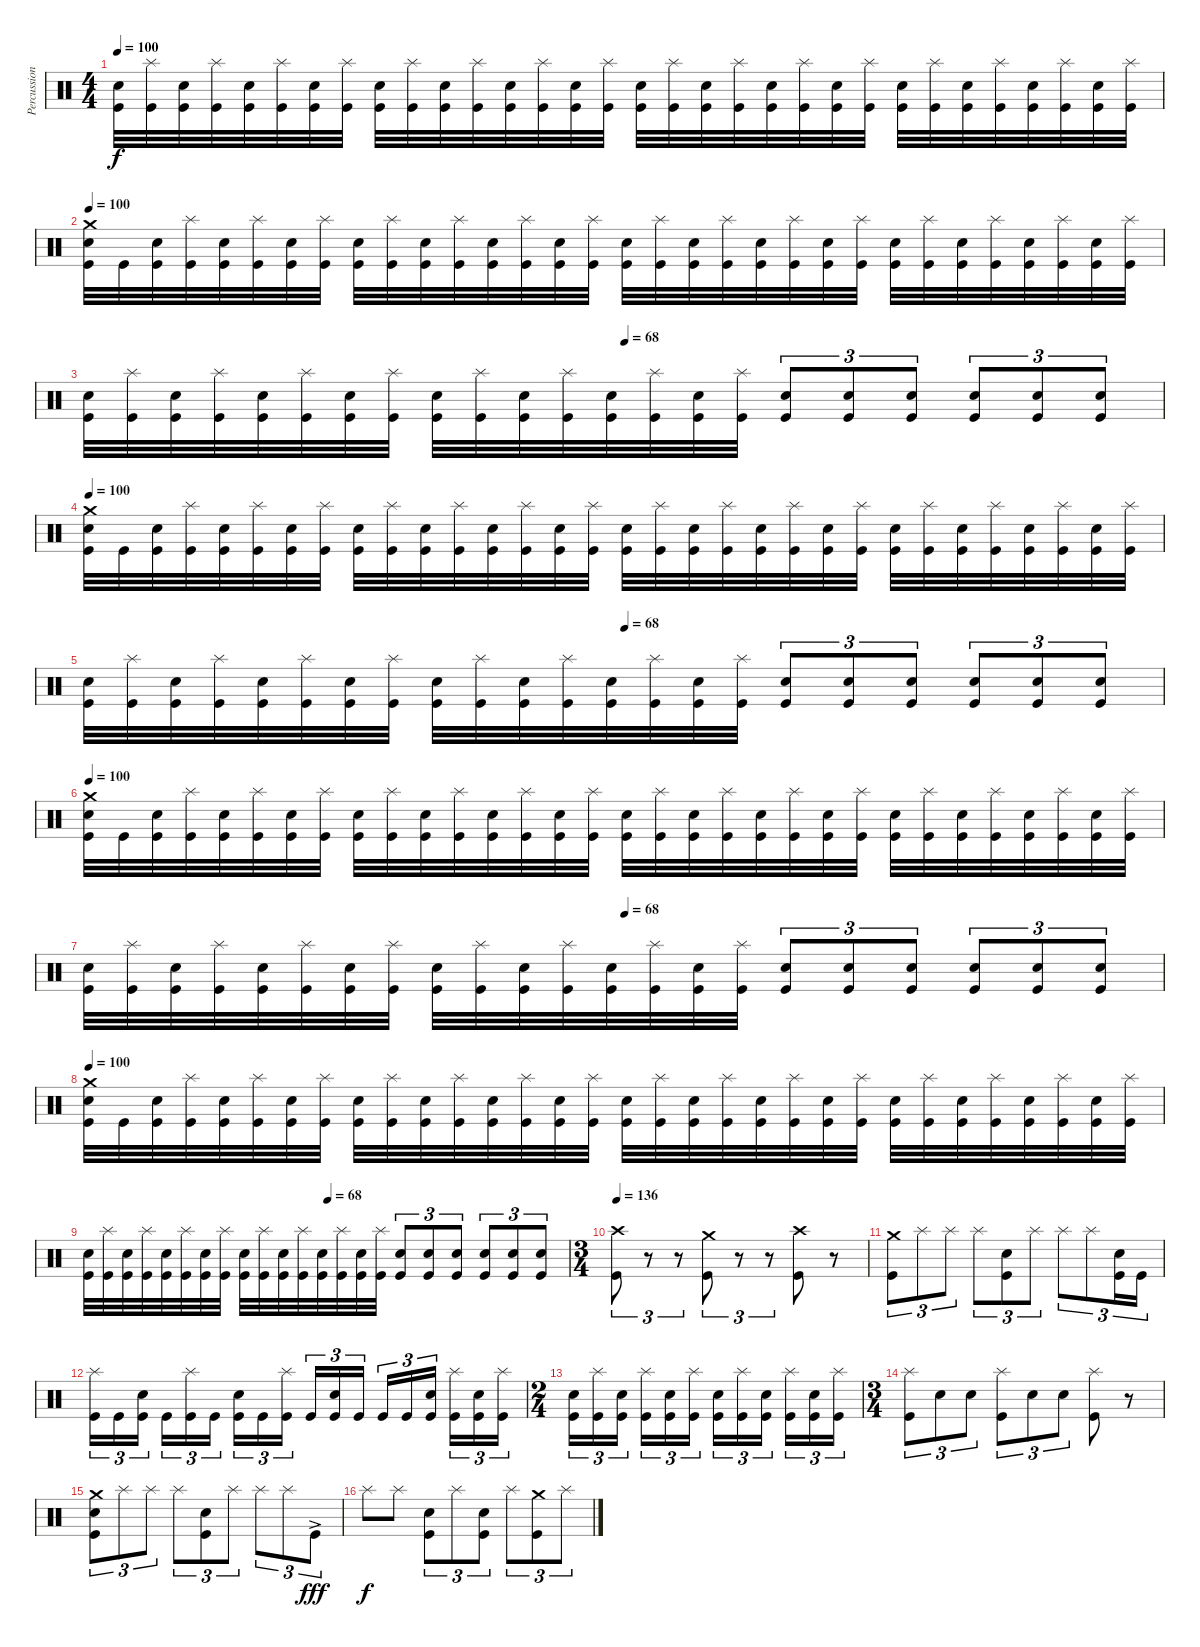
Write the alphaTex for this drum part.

\track ("Percussion" "Percussion") {instrument percussion}
\staff {score}
\articulation defaults
\ts (4 4)
\tempo 100
\clef neutral
\ks c
("Electric Snare (hit)" "Kick (hit)").32{dy f} ("Splash (hit)" "Kick (hit)").32 ("Electric Snare (hit)" "Kick (hit)").32 ("Splash (hit)" "Kick (hit)").32 ("Electric Snare (hit)" "Kick (hit)").32 ("Splash (hit)" "Kick (hit)").32 ("Electric Snare (hit)" "Kick (hit)").32 ("Splash (hit)" "Kick (hit)").32 ("Electric Snare (hit)" "Kick (hit)").32 ("Splash (hit)" "Kick (hit)").32 ("Electric Snare (hit)" "Kick (hit)").32 ("Splash (hit)" "Kick (hit)").32 ("Electric Snare (hit)" "Kick (hit)").32 ("Splash (hit)" "Kick (hit)").32 ("Electric Snare (hit)" "Kick (hit)").32 ("Splash (hit)" "Kick (hit)").32 ("Electric Snare (hit)" "Kick (hit)").32 ("Splash (hit)" "Kick (hit)").32 ("Electric Snare (hit)" "Kick (hit)").32 ("Splash (hit)" "Kick (hit)").32 ("Electric Snare (hit)" "Kick (hit)").32 ("Splash (hit)" "Kick (hit)").32 ("Electric Snare (hit)" "Kick (hit)").32 ("Splash (hit)" "Kick (hit)").32 ("Electric Snare (hit)" "Kick (hit)").32 ("Splash (hit)" "Kick (hit)").32 ("Electric Snare (hit)" "Kick (hit)").32 ("Splash (hit)" "Kick (hit)").32 ("Electric Snare (hit)" "Kick (hit)").32 ("Splash (hit)" "Kick (hit)").32 ("Electric Snare (hit)" "Kick (hit)").32 ("Splash (hit)" "Kick (hit)").32 |
\tempo 100
("Crash medium (hit)" "Electric Snare (hit)" "Kick (hit)").32 "Kick (hit)".32 ("Electric Snare (hit)" "Kick (hit)").32 ("Splash (hit)" "Kick (hit)").32 ("Electric Snare (hit)" "Kick (hit)").32 ("Splash (hit)" "Kick (hit)").32 ("Electric Snare (hit)" "Kick (hit)").32 ("Splash (hit)" "Kick (hit)").32 ("Electric Snare (hit)" "Kick (hit)").32 ("Splash (hit)" "Kick (hit)").32 ("Electric Snare (hit)" "Kick (hit)").32 ("Splash (hit)" "Kick (hit)").32 ("Electric Snare (hit)" "Kick (hit)").32 ("Splash (hit)" "Kick (hit)").32 ("Electric Snare (hit)" "Kick (hit)").32 ("Splash (hit)" "Kick (hit)").32 ("Electric Snare (hit)" "Kick (hit)").32 ("Splash (hit)" "Kick (hit)").32 ("Electric Snare (hit)" "Kick (hit)").32 ("Splash (hit)" "Kick (hit)").32 ("Electric Snare (hit)" "Kick (hit)").32 ("Splash (hit)" "Kick (hit)").32 ("Electric Snare (hit)" "Kick (hit)").32 ("Splash (hit)" "Kick (hit)").32 ("Electric Snare (hit)" "Kick (hit)").32 ("Splash (hit)" "Kick (hit)").32 ("Electric Snare (hit)" "Kick (hit)").32 ("Splash (hit)" "Kick (hit)").32 ("Electric Snare (hit)" "Kick (hit)").32 ("Splash (hit)" "Kick (hit)").32 ("Electric Snare (hit)" "Kick (hit)").32 ("Splash (hit)" "Kick (hit)").32 |
\tempo (68 0.5)
("Electric Snare (hit)" "Kick (hit)").32 ("Splash (hit)" "Kick (hit)").32 ("Electric Snare (hit)" "Kick (hit)").32 ("Splash (hit)" "Kick (hit)").32 ("Electric Snare (hit)" "Kick (hit)").32 ("Splash (hit)" "Kick (hit)").32 ("Electric Snare (hit)" "Kick (hit)").32 ("Splash (hit)" "Kick (hit)").32 ("Electric Snare (hit)" "Kick (hit)").32 ("Splash (hit)" "Kick (hit)").32 ("Electric Snare (hit)" "Kick (hit)").32 ("Splash (hit)" "Kick (hit)").32 ("Electric Snare (hit)" "Kick (hit)").32 ("Splash (hit)" "Kick (hit)").32 ("Electric Snare (hit)" "Kick (hit)").32 ("Splash (hit)" "Kick (hit)").32 ("Electric Snare (hit)" "Kick (hit)").8{tu (3 2)} ("Electric Snare (hit)" "Kick (hit)").8{tu (3 2)} ("Electric Snare (hit)" "Kick (hit)").8{tu (3 2)} ("Electric Snare (hit)" "Kick (hit)").8{tu (3 2)} ("Electric Snare (hit)" "Kick (hit)").8{tu (3 2)} ("Electric Snare (hit)" "Kick (hit)").8{tu (3 2)} |
\tempo 100
("Crash medium (hit)" "Electric Snare (hit)" "Kick (hit)").32 "Kick (hit)".32 ("Electric Snare (hit)" "Kick (hit)").32 ("Splash (hit)" "Kick (hit)").32 ("Electric Snare (hit)" "Kick (hit)").32 ("Splash (hit)" "Kick (hit)").32 ("Electric Snare (hit)" "Kick (hit)").32 ("Splash (hit)" "Kick (hit)").32 ("Electric Snare (hit)" "Kick (hit)").32 ("Splash (hit)" "Kick (hit)").32 ("Electric Snare (hit)" "Kick (hit)").32 ("Splash (hit)" "Kick (hit)").32 ("Electric Snare (hit)" "Kick (hit)").32 ("Splash (hit)" "Kick (hit)").32 ("Electric Snare (hit)" "Kick (hit)").32 ("Splash (hit)" "Kick (hit)").32 ("Electric Snare (hit)" "Kick (hit)").32 ("Splash (hit)" "Kick (hit)").32 ("Electric Snare (hit)" "Kick (hit)").32 ("Splash (hit)" "Kick (hit)").32 ("Electric Snare (hit)" "Kick (hit)").32 ("Splash (hit)" "Kick (hit)").32 ("Electric Snare (hit)" "Kick (hit)").32 ("Splash (hit)" "Kick (hit)").32 ("Electric Snare (hit)" "Kick (hit)").32 ("Splash (hit)" "Kick (hit)").32 ("Electric Snare (hit)" "Kick (hit)").32 ("Splash (hit)" "Kick (hit)").32 ("Electric Snare (hit)" "Kick (hit)").32 ("Splash (hit)" "Kick (hit)").32 ("Electric Snare (hit)" "Kick (hit)").32 ("Splash (hit)" "Kick (hit)").32 |
\tempo (68 0.5)
("Electric Snare (hit)" "Kick (hit)").32 ("Splash (hit)" "Kick (hit)").32 ("Electric Snare (hit)" "Kick (hit)").32 ("Splash (hit)" "Kick (hit)").32 ("Electric Snare (hit)" "Kick (hit)").32 ("Splash (hit)" "Kick (hit)").32 ("Electric Snare (hit)" "Kick (hit)").32 ("Splash (hit)" "Kick (hit)").32 ("Electric Snare (hit)" "Kick (hit)").32 ("Splash (hit)" "Kick (hit)").32 ("Electric Snare (hit)" "Kick (hit)").32 ("Splash (hit)" "Kick (hit)").32 ("Electric Snare (hit)" "Kick (hit)").32 ("Splash (hit)" "Kick (hit)").32 ("Electric Snare (hit)" "Kick (hit)").32 ("Splash (hit)" "Kick (hit)").32 ("Electric Snare (hit)" "Kick (hit)").8{tu (3 2)} ("Electric Snare (hit)" "Kick (hit)").8{tu (3 2)} ("Electric Snare (hit)" "Kick (hit)").8{tu (3 2)} ("Electric Snare (hit)" "Kick (hit)").8{tu (3 2)} ("Electric Snare (hit)" "Kick (hit)").8{tu (3 2)} ("Electric Snare (hit)" "Kick (hit)").8{tu (3 2)} |
\tempo 100
("Crash medium (hit)" "Electric Snare (hit)" "Kick (hit)").32 "Kick (hit)".32 ("Electric Snare (hit)" "Kick (hit)").32 ("Splash (hit)" "Kick (hit)").32 ("Electric Snare (hit)" "Kick (hit)").32 ("Splash (hit)" "Kick (hit)").32 ("Electric Snare (hit)" "Kick (hit)").32 ("Splash (hit)" "Kick (hit)").32 ("Electric Snare (hit)" "Kick (hit)").32 ("Splash (hit)" "Kick (hit)").32 ("Electric Snare (hit)" "Kick (hit)").32 ("Splash (hit)" "Kick (hit)").32 ("Electric Snare (hit)" "Kick (hit)").32 ("Splash (hit)" "Kick (hit)").32 ("Electric Snare (hit)" "Kick (hit)").32 ("Splash (hit)" "Kick (hit)").32 ("Electric Snare (hit)" "Kick (hit)").32 ("Splash (hit)" "Kick (hit)").32 ("Electric Snare (hit)" "Kick (hit)").32 ("Splash (hit)" "Kick (hit)").32 ("Electric Snare (hit)" "Kick (hit)").32 ("Splash (hit)" "Kick (hit)").32 ("Electric Snare (hit)" "Kick (hit)").32 ("Splash (hit)" "Kick (hit)").32 ("Electric Snare (hit)" "Kick (hit)").32 ("Splash (hit)" "Kick (hit)").32 ("Electric Snare (hit)" "Kick (hit)").32 ("Splash (hit)" "Kick (hit)").32 ("Electric Snare (hit)" "Kick (hit)").32 ("Splash (hit)" "Kick (hit)").32 ("Electric Snare (hit)" "Kick (hit)").32 ("Splash (hit)" "Kick (hit)").32 |
\tempo (68 0.5)
("Electric Snare (hit)" "Kick (hit)").32 ("Splash (hit)" "Kick (hit)").32 ("Electric Snare (hit)" "Kick (hit)").32 ("Splash (hit)" "Kick (hit)").32 ("Electric Snare (hit)" "Kick (hit)").32 ("Splash (hit)" "Kick (hit)").32 ("Electric Snare (hit)" "Kick (hit)").32 ("Splash (hit)" "Kick (hit)").32 ("Electric Snare (hit)" "Kick (hit)").32 ("Splash (hit)" "Kick (hit)").32 ("Electric Snare (hit)" "Kick (hit)").32 ("Splash (hit)" "Kick (hit)").32 ("Electric Snare (hit)" "Kick (hit)").32 ("Splash (hit)" "Kick (hit)").32 ("Electric Snare (hit)" "Kick (hit)").32 ("Splash (hit)" "Kick (hit)").32 ("Electric Snare (hit)" "Kick (hit)").8{tu (3 2)} ("Electric Snare (hit)" "Kick (hit)").8{tu (3 2)} ("Electric Snare (hit)" "Kick (hit)").8{tu (3 2)} ("Electric Snare (hit)" "Kick (hit)").8{tu (3 2)} ("Electric Snare (hit)" "Kick (hit)").8{tu (3 2)} ("Electric Snare (hit)" "Kick (hit)").8{tu (3 2)} |
\tempo 100
("Crash medium (hit)" "Electric Snare (hit)" "Kick (hit)").32 "Kick (hit)".32 ("Electric Snare (hit)" "Kick (hit)").32 ("Splash (hit)" "Kick (hit)").32 ("Electric Snare (hit)" "Kick (hit)").32 ("Splash (hit)" "Kick (hit)").32 ("Electric Snare (hit)" "Kick (hit)").32 ("Splash (hit)" "Kick (hit)").32 ("Electric Snare (hit)" "Kick (hit)").32 ("Splash (hit)" "Kick (hit)").32 ("Electric Snare (hit)" "Kick (hit)").32 ("Splash (hit)" "Kick (hit)").32 ("Electric Snare (hit)" "Kick (hit)").32 ("Splash (hit)" "Kick (hit)").32 ("Electric Snare (hit)" "Kick (hit)").32 ("Splash (hit)" "Kick (hit)").32 ("Electric Snare (hit)" "Kick (hit)").32 ("Splash (hit)" "Kick (hit)").32 ("Electric Snare (hit)" "Kick (hit)").32 ("Splash (hit)" "Kick (hit)").32 ("Electric Snare (hit)" "Kick (hit)").32 ("Splash (hit)" "Kick (hit)").32 ("Electric Snare (hit)" "Kick (hit)").32 ("Splash (hit)" "Kick (hit)").32 ("Electric Snare (hit)" "Kick (hit)").32 ("Splash (hit)" "Kick (hit)").32 ("Electric Snare (hit)" "Kick (hit)").32 ("Splash (hit)" "Kick (hit)").32 ("Electric Snare (hit)" "Kick (hit)").32 ("Splash (hit)" "Kick (hit)").32 ("Electric Snare (hit)" "Kick (hit)").32 ("Splash (hit)" "Kick (hit)").32 |
\tempo (68 0.5)
("Electric Snare (hit)" "Kick (hit)").32 ("Splash (hit)" "Kick (hit)").32 ("Electric Snare (hit)" "Kick (hit)").32 ("Splash (hit)" "Kick (hit)").32 ("Electric Snare (hit)" "Kick (hit)").32 ("Splash (hit)" "Kick (hit)").32 ("Electric Snare (hit)" "Kick (hit)").32 ("Splash (hit)" "Kick (hit)").32 ("Electric Snare (hit)" "Kick (hit)").32 ("Splash (hit)" "Kick (hit)").32 ("Electric Snare (hit)" "Kick (hit)").32 ("Splash (hit)" "Kick (hit)").32 ("Electric Snare (hit)" "Kick (hit)").32 ("Splash (hit)" "Kick (hit)").32 ("Electric Snare (hit)" "Kick (hit)").32 ("Splash (hit)" "Kick (hit)").32 ("Electric Snare (hit)" "Kick (hit)").8{tu (3 2)} ("Electric Snare (hit)" "Kick (hit)").8{tu (3 2)} ("Electric Snare (hit)" "Kick (hit)").8{tu (3 2)} ("Electric Snare (hit)" "Kick (hit)").8{tu (3 2)} ("Electric Snare (hit)" "Kick (hit)").8{tu (3 2)} ("Electric Snare (hit)" "Kick (hit)").8{tu (3 2)} |
\ts (3 4)
\tempo 136
("Crash high (hit)" "Kick (hit)").8{tu (3 2)} r.8{tu (3 2)} r.8{tu (3 2)} ("Crash medium (hit)" "Kick (hit)").8{tu (3 2)} r.8{tu (3 2)} r.8{tu (3 2)} ("Crash high (hit)" "Kick (hit)").8 r.8 |
("Crash medium (hit)" "Kick (hit)").8{tu (3 2)} "Splash (hit)".8{tu (3 2)} "Splash (hit)".8{tu (3 2)} "Splash (hit)".8{tu (3 2)} ("Electric Snare (hit)" "Kick (hit)").8{tu (3 2)} "Splash (hit)".8{tu (3 2)} "Splash (hit)".8{tu (3 2)} "Splash (hit)".8{tu (3 2)} ("Electric Snare (hit)" "Kick (hit)").16{tu (3 2)} "Kick (hit)".16{tu (3 2)} |
("Splash (hit)" "Kick (hit)").16{tu (3 2)} "Kick (hit)".16{tu (3 2)} ("Electric Snare (hit)" "Kick (hit)").16{tu (3 2)} "Kick (hit)".16{tu (3 2)} ("Splash (hit)" "Kick (hit)").16{tu (3 2)} "Kick (hit)".16{tu (3 2)} ("Electric Snare (hit)" "Kick (hit)").16{tu (3 2)} "Kick (hit)".16{tu (3 2)} ("Splash (hit)" "Kick (hit)").16{tu (3 2)} "Kick (hit)".16{tu (3 2)} ("Electric Snare (hit)" "Kick (hit)").16{tu (3 2)} "Kick (hit)".16{tu (3 2)} "Kick (hit)".16{tu (3 2)} "Kick (hit)".16{tu (3 2)} ("Electric Snare (hit)" "Kick (hit)").16{tu (3 2)} ("Splash (hit)" "Kick (hit)").16{tu (3 2)} ("Electric Snare (hit)" "Kick (hit)").16{tu (3 2)} ("Splash (hit)" "Kick (hit)").16{tu (3 2)} |
\ts (2 4)
("Electric Snare (hit)" "Kick (hit)").16{tu (3 2)} ("Splash (hit)" "Kick (hit)").16{tu (3 2)} ("Electric Snare (hit)" "Kick (hit)").16{tu (3 2)} ("Splash (hit)" "Kick (hit)").16{tu (3 2)} ("Electric Snare (hit)" "Kick (hit)").16{tu (3 2)} ("Splash (hit)" "Kick (hit)").16{tu (3 2)} ("Electric Snare (hit)" "Kick (hit)").16{tu (3 2)} ("Splash (hit)" "Kick (hit)").16{tu (3 2)} ("Electric Snare (hit)" "Kick (hit)").16{tu (3 2)} ("Splash (hit)" "Kick (hit)").16{tu (3 2)} ("Electric Snare (hit)" "Kick (hit)").16{tu (3 2)} ("Splash (hit)" "Kick (hit)").16{tu (3 2)} |
\ts (3 4)
("Splash (hit)" "Kick (hit)").8{tu (3 2)} "Electric Snare (hit)".8{tu (3 2)} "Electric Snare (hit)".8{tu (3 2)} ("Splash (hit)" "Kick (hit)").8{tu (3 2)} "Electric Snare (hit)".8{tu (3 2)} "Electric Snare (hit)".8{tu (3 2)} ("Splash (hit)" "Kick (hit)").8 r.8 |
("Crash medium (hit)" "Electric Snare (hit)" "Kick (hit)").8{tu (3 2)} "Splash (hit)".8{tu (3 2)} "Splash (hit)".8{tu (3 2)} "Splash (hit)".8{tu (3 2)} ("Electric Snare (hit)" "Kick (hit)").8{tu (3 2)} "Splash (hit)".8{tu (3 2)} "Splash (hit)".8{tu (3 2)} "Splash (hit)".8{tu (3 2)} "Kick (hit)"{ac}.8{tu (3 2) dy fff} |
"Splash (hit)".8{dy f} "Splash (hit)".8 ("Electric Snare (hit)" "Kick (hit)").8{tu (3 2)} "Splash (hit)".8{tu (3 2)} ("Electric Snare (hit)" "Kick (hit)").8{tu (3 2)} "Splash (hit)".8{tu (3 2)} ("Crash medium (hit)" "Kick (hit)").8{tu (3 2)} "Splash (hit)".8{tu (3 2)}
